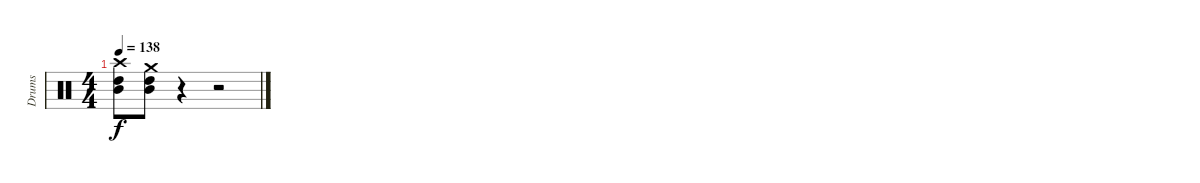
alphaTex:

\track ("Drums" "Drums") {instrument percussion}
\staff {score}
\articulation defaults
\ts (4 4)
\tempo 138
\clef neutral
\ks c
("Crash high (hit)" "High Tom (hit)" "Mid Tom (hit)").8{dy f} ("Crash medium (hit)" "High Tom (hit)" "Mid Tom (hit)").8 r.4 r.2
